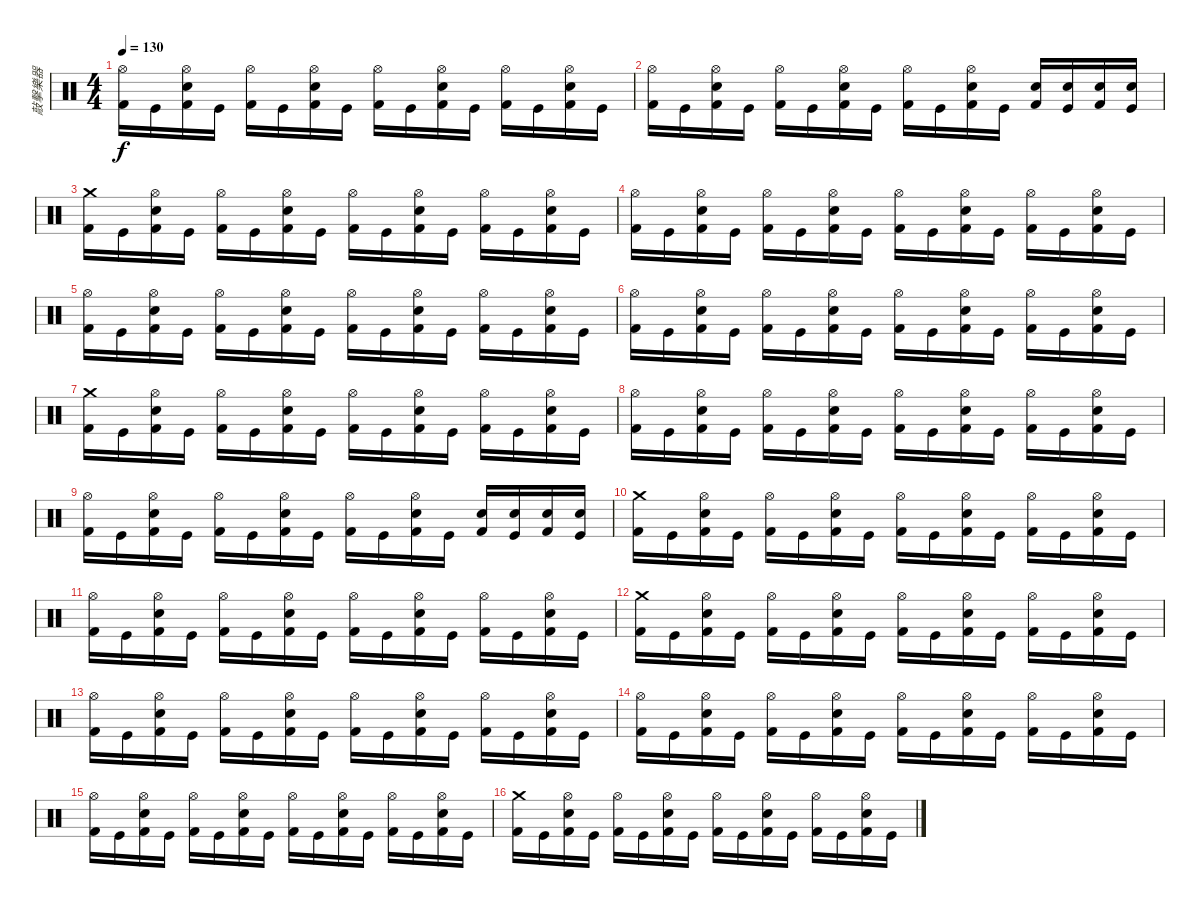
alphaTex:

\track ("敲擊樂器" "敲擊樂器") {instrument percussion}
\staff {score}
\articulation defaults
\ts (4 4)
\tempo 130
\clef neutral
\ks c
("Hi-Hat (open)" "Kick (hit) 2").16{dy f} "Kick (hit)".16 ("Hi-Hat (open)" "Snare (hit) 2" "Kick (hit) 2").16 "Kick (hit)".16 ("Hi-Hat (open)" "Kick (hit) 2").16 "Kick (hit)".16 ("Hi-Hat (open)" "Snare (hit) 2" "Kick (hit) 2").16 "Kick (hit)".16 ("Hi-Hat (open)" "Kick (hit) 2").16 "Kick (hit)".16 ("Hi-Hat (open)" "Snare (hit) 2" "Kick (hit) 2").16 "Kick (hit)".16 ("Hi-Hat (open)" "Kick (hit) 2").16 "Kick (hit)".16 ("Hi-Hat (open)" "Snare (hit) 2" "Kick (hit) 2").16 "Kick (hit)".16 |
("Hi-Hat (open)" "Kick (hit) 2").16 "Kick (hit)".16 ("Hi-Hat (open)" "Snare (hit) 2" "Kick (hit) 2").16 "Kick (hit)".16 ("Hi-Hat (open)" "Kick (hit) 2").16 "Kick (hit)".16 ("Hi-Hat (open)" "Snare (hit) 2" "Kick (hit) 2").16 "Kick (hit)".16 ("Hi-Hat (open)" "Kick (hit) 2").16 "Kick (hit)".16 ("Hi-Hat (open)" "Snare (hit) 2" "Kick (hit) 2").16 "Kick (hit)".16 ("Snare (hit) 2" "Kick (hit) 2").16 ("Snare (hit) 2" "Kick (hit)").16 ("Snare (hit) 2" "Kick (hit) 2").16 ("Snare (hit) 2" "Kick (hit)").16 |
("Crash medium (hit)" "Kick (hit) 2").16 "Kick (hit)".16 ("Hi-Hat (open)" "Snare (hit) 2" "Kick (hit) 2").16 "Kick (hit)".16 ("Hi-Hat (open)" "Kick (hit) 2").16 "Kick (hit)".16 ("Hi-Hat (open)" "Snare (hit) 2" "Kick (hit) 2").16 "Kick (hit)".16 ("Hi-Hat (open)" "Kick (hit) 2").16 "Kick (hit)".16 ("Hi-Hat (open)" "Snare (hit) 2" "Kick (hit) 2").16 "Kick (hit)".16 ("Hi-Hat (open)" "Kick (hit) 2").16 "Kick (hit)".16 ("Hi-Hat (open)" "Snare (hit) 2" "Kick (hit) 2").16 "Kick (hit)".16 |
("Hi-Hat (open)" "Kick (hit) 2").16 "Kick (hit)".16 ("Hi-Hat (open)" "Snare (hit) 2" "Kick (hit) 2").16 "Kick (hit)".16 ("Hi-Hat (open)" "Kick (hit) 2").16 "Kick (hit)".16 ("Hi-Hat (open)" "Snare (hit) 2" "Kick (hit) 2").16 "Kick (hit)".16 ("Hi-Hat (open)" "Kick (hit) 2").16 "Kick (hit)".16 ("Hi-Hat (open)" "Snare (hit) 2" "Kick (hit) 2").16 "Kick (hit)".16 ("Hi-Hat (open)" "Kick (hit) 2").16 "Kick (hit)".16 ("Hi-Hat (open)" "Snare (hit) 2" "Kick (hit) 2").16 "Kick (hit)".16 |
("Hi-Hat (open)" "Kick (hit) 2").16 "Kick (hit)".16 ("Hi-Hat (open)" "Snare (hit) 2" "Kick (hit) 2").16 "Kick (hit)".16 ("Hi-Hat (open)" "Kick (hit) 2").16 "Kick (hit)".16 ("Hi-Hat (open)" "Snare (hit) 2" "Kick (hit) 2").16 "Kick (hit)".16 ("Hi-Hat (open)" "Kick (hit) 2").16 "Kick (hit)".16 ("Hi-Hat (open)" "Snare (hit) 2" "Kick (hit) 2").16 "Kick (hit)".16 ("Hi-Hat (open)" "Kick (hit) 2").16 "Kick (hit)".16 ("Hi-Hat (open)" "Snare (hit) 2" "Kick (hit) 2").16 "Kick (hit)".16 |
("Hi-Hat (open)" "Kick (hit) 2").16 "Kick (hit)".16 ("Hi-Hat (open)" "Snare (hit) 2" "Kick (hit) 2").16 "Kick (hit)".16 ("Hi-Hat (open)" "Kick (hit) 2").16 "Kick (hit)".16 ("Hi-Hat (open)" "Snare (hit) 2" "Kick (hit) 2").16 "Kick (hit)".16 ("Hi-Hat (open)" "Kick (hit) 2").16 "Kick (hit)".16 ("Hi-Hat (open)" "Snare (hit) 2" "Kick (hit) 2").16 "Kick (hit)".16 ("Hi-Hat (open)" "Kick (hit) 2").16 "Kick (hit)".16 ("Hi-Hat (open)" "Snare (hit) 2" "Kick (hit) 2").16 "Kick (hit)".16 |
("Crash medium (hit)" "Kick (hit) 2").16 "Kick (hit)".16 ("Hi-Hat (open)" "Snare (hit) 2" "Kick (hit) 2").16 "Kick (hit)".16 ("Hi-Hat (open)" "Kick (hit) 2").16 "Kick (hit)".16 ("Hi-Hat (open)" "Snare (hit) 2" "Kick (hit) 2").16 "Kick (hit)".16 ("Hi-Hat (open)" "Kick (hit) 2").16 "Kick (hit)".16 ("Hi-Hat (open)" "Snare (hit) 2" "Kick (hit) 2").16 "Kick (hit)".16 ("Hi-Hat (open)" "Kick (hit) 2").16 "Kick (hit)".16 ("Hi-Hat (open)" "Snare (hit) 2" "Kick (hit) 2").16 "Kick (hit)".16 |
("Hi-Hat (open)" "Kick (hit) 2").16 "Kick (hit)".16 ("Hi-Hat (open)" "Snare (hit) 2" "Kick (hit) 2").16 "Kick (hit)".16 ("Hi-Hat (open)" "Kick (hit) 2").16 "Kick (hit)".16 ("Hi-Hat (open)" "Snare (hit) 2" "Kick (hit) 2").16 "Kick (hit)".16 ("Hi-Hat (open)" "Kick (hit) 2").16 "Kick (hit)".16 ("Hi-Hat (open)" "Snare (hit) 2" "Kick (hit) 2").16 "Kick (hit)".16 ("Hi-Hat (open)" "Kick (hit) 2").16 "Kick (hit)".16 ("Hi-Hat (open)" "Snare (hit) 2" "Kick (hit) 2").16 "Kick (hit)".16 |
("Hi-Hat (open)" "Kick (hit) 2").16 "Kick (hit)".16 ("Hi-Hat (open)" "Snare (hit) 2" "Kick (hit) 2").16 "Kick (hit)".16 ("Hi-Hat (open)" "Kick (hit) 2").16 "Kick (hit)".16 ("Hi-Hat (open)" "Snare (hit) 2" "Kick (hit) 2").16 "Kick (hit)".16 ("Hi-Hat (open)" "Kick (hit) 2").16 "Kick (hit)".16 ("Hi-Hat (open)" "Snare (hit) 2" "Kick (hit) 2").16 "Kick (hit)".16 ("Snare (hit) 2" "Kick (hit) 2").16 ("Snare (hit) 2" "Kick (hit)").16 ("Snare (hit) 2" "Kick (hit) 2").16 ("Snare (hit) 2" "Kick (hit)").16 |
("Crash medium (hit)" "Kick (hit) 2").16 "Kick (hit)".16 ("Hi-Hat (open)" "Snare (hit) 2" "Kick (hit) 2").16 "Kick (hit)".16 ("Hi-Hat (open)" "Kick (hit) 2").16 "Kick (hit)".16 ("Hi-Hat (open)" "Snare (hit) 2" "Kick (hit) 2").16 "Kick (hit)".16 ("Hi-Hat (open)" "Kick (hit) 2").16 "Kick (hit)".16 ("Hi-Hat (open)" "Snare (hit) 2" "Kick (hit) 2").16 "Kick (hit)".16 ("Hi-Hat (open)" "Kick (hit) 2").16 "Kick (hit)".16 ("Hi-Hat (open)" "Snare (hit) 2" "Kick (hit) 2").16 "Kick (hit)".16 |
("Hi-Hat (open)" "Kick (hit) 2").16 "Kick (hit)".16 ("Hi-Hat (open)" "Snare (hit) 2" "Kick (hit) 2").16 "Kick (hit)".16 ("Hi-Hat (open)" "Kick (hit) 2").16 "Kick (hit)".16 ("Hi-Hat (open)" "Snare (hit) 2" "Kick (hit) 2").16 "Kick (hit)".16 ("Hi-Hat (open)" "Kick (hit) 2").16 "Kick (hit)".16 ("Hi-Hat (open)" "Snare (hit) 2" "Kick (hit) 2").16 "Kick (hit)".16 ("Hi-Hat (open)" "Kick (hit) 2").16 "Kick (hit)".16 ("Hi-Hat (open)" "Snare (hit) 2" "Kick (hit) 2").16 "Kick (hit)".16 |
("Crash medium (hit)" "Kick (hit) 2").16 "Kick (hit)".16 ("Hi-Hat (open)" "Snare (hit) 2" "Kick (hit) 2").16 "Kick (hit)".16 ("Hi-Hat (open)" "Kick (hit) 2").16 "Kick (hit)".16 ("Hi-Hat (open)" "Snare (hit) 2" "Kick (hit) 2").16 "Kick (hit)".16 ("Hi-Hat (open)" "Kick (hit) 2").16 "Kick (hit)".16 ("Hi-Hat (open)" "Snare (hit) 2" "Kick (hit) 2").16 "Kick (hit)".16 ("Hi-Hat (open)" "Kick (hit) 2").16 "Kick (hit)".16 ("Hi-Hat (open)" "Snare (hit) 2" "Kick (hit) 2").16 "Kick (hit)".16 |
("Hi-Hat (open)" "Kick (hit) 2").16 "Kick (hit)".16 ("Hi-Hat (open)" "Snare (hit) 2" "Kick (hit) 2").16 "Kick (hit)".16 ("Hi-Hat (open)" "Kick (hit) 2").16 "Kick (hit)".16 ("Hi-Hat (open)" "Snare (hit) 2" "Kick (hit) 2").16 "Kick (hit)".16 ("Hi-Hat (open)" "Kick (hit) 2").16 "Kick (hit)".16 ("Hi-Hat (open)" "Snare (hit) 2" "Kick (hit) 2").16 "Kick (hit)".16 ("Hi-Hat (open)" "Kick (hit) 2").16 "Kick (hit)".16 ("Hi-Hat (open)" "Snare (hit) 2" "Kick (hit) 2").16 "Kick (hit)".16 |
("Hi-Hat (open)" "Kick (hit) 2").16 "Kick (hit)".16 ("Hi-Hat (open)" "Snare (hit) 2" "Kick (hit) 2").16 "Kick (hit)".16 ("Hi-Hat (open)" "Kick (hit) 2").16 "Kick (hit)".16 ("Hi-Hat (open)" "Snare (hit) 2" "Kick (hit) 2").16 "Kick (hit)".16 ("Hi-Hat (open)" "Kick (hit) 2").16 "Kick (hit)".16 ("Hi-Hat (open)" "Snare (hit) 2" "Kick (hit) 2").16 "Kick (hit)".16 ("Hi-Hat (open)" "Kick (hit) 2").16 "Kick (hit)".16 ("Hi-Hat (open)" "Snare (hit) 2" "Kick (hit) 2").16 "Kick (hit)".16 |
("Hi-Hat (open)" "Kick (hit) 2").16 "Kick (hit)".16 ("Hi-Hat (open)" "Snare (hit) 2" "Kick (hit) 2").16 "Kick (hit)".16 ("Hi-Hat (open)" "Kick (hit) 2").16 "Kick (hit)".16 ("Hi-Hat (open)" "Snare (hit) 2" "Kick (hit) 2").16 "Kick (hit)".16 ("Hi-Hat (open)" "Kick (hit) 2").16 "Kick (hit)".16 ("Hi-Hat (open)" "Snare (hit) 2" "Kick (hit) 2").16 "Kick (hit)".16 ("Hi-Hat (open)" "Kick (hit) 2").16 "Kick (hit)".16 ("Hi-Hat (open)" "Snare (hit) 2" "Kick (hit) 2").16 "Kick (hit)".16 |
("Crash medium (hit)" "Kick (hit) 2").16 "Kick (hit)".16 ("Hi-Hat (open)" "Snare (hit) 2" "Kick (hit) 2").16 "Kick (hit)".16 ("Hi-Hat (open)" "Kick (hit) 2").16 "Kick (hit)".16 ("Hi-Hat (open)" "Snare (hit) 2" "Kick (hit) 2").16 "Kick (hit)".16 ("Hi-Hat (open)" "Kick (hit) 2").16 "Kick (hit)".16 ("Hi-Hat (open)" "Snare (hit) 2" "Kick (hit) 2").16 "Kick (hit)".16 ("Hi-Hat (open)" "Kick (hit) 2").16 "Kick (hit)".16 ("Hi-Hat (open)" "Snare (hit) 2" "Kick (hit) 2").16 "Kick (hit)".16
